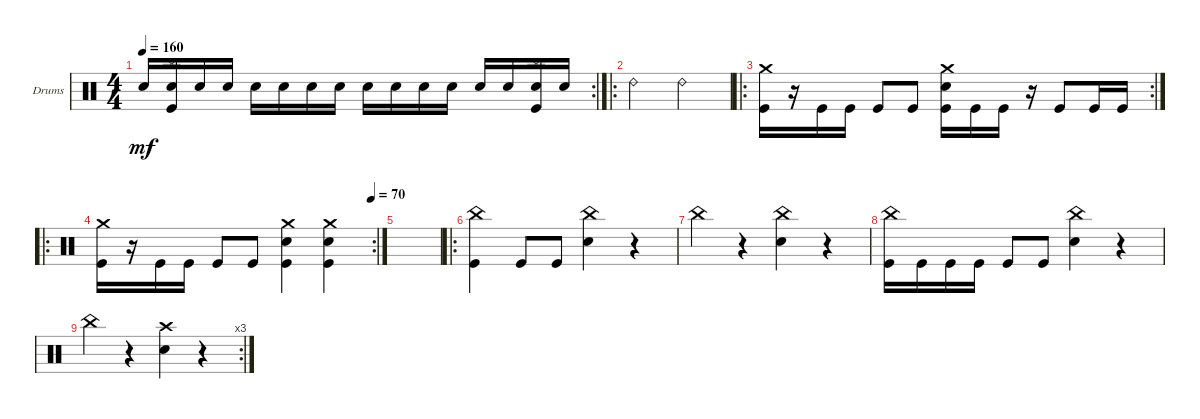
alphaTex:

\defaultSystemsLayout 4
\bracketExtendMode groupsimilarinstruments
\firstSystemTrackNameOrientation horizontal
\otherSystemsTrackNameOrientation horizontal
\track ("Drumkit" "Drums") {instrument percussion}
\staff {score}
\articulation defaults
\rc 2
\ts (4 4)
\tempo 160
\clef neutral
\ks c "Snare (hit) 2".16{dy mf}
("Snare (hit) 2" "Splash (hit)" "Kick (hit)").16 "Snare (hit) 2".16 "Snare (hit) 2".16 "Snare (hit) 2".16 "Snare (hit) 2".16 "Snare (hit) 2".16 "Snare (hit) 2".16 "Snare (hit) 2".16 "Snare (hit) 2".16 "Snare (hit) 2".16 "Snare (hit) 2".16 "Snare (hit) 2".16 "Snare (hit) 2".16 ("Snare (hit) 2" "Splash (hit)" "Kick (hit)").16 "Snare (hit) 2".16 |
\ro "Ride (bell) 2".2 "Ride (bell) 2".2
|
\ro
\rc 2
("Kick (hit)" "Crash medium (hit)").16 r.16 "Kick (hit)".16 "Kick (hit)".16 "Kick (hit)".8 "Kick (hit)".8 ("Kick (hit)" "Crash medium (hit)" "Snare (hit) 2").16 "Kick (hit)".16 "Kick (hit)".16 r.16 "Kick (hit)".8 "Kick (hit)".16 "Kick (hit)".16 |
\ro
\rc 2
\tempo (70 1)
("Kick (hit)" "Crash medium (hit)").16 r.16 "Kick (hit)".16 "Kick (hit)".16 "Kick (hit)".8 "Kick (hit)".8 ("Kick (hit)" "Crash medium (hit)" "Snare (hit) 2").4 ("Crash medium (hit)" "Kick (hit)" "Snare (hit) 2").4 |
|
\ro
("Kick (hit)" "China (hit)").4 "Kick (hit)".8 "Kick (hit)".8 ("Snare (hit) 2" "China (hit)").4 r.4 |
"China (hit)".4 r.4 ("Snare (hit) 2" "China (hit)").4 r.4 |
("Kick (hit)" "China (hit)").16 "Kick (hit)".16 "Kick (hit)".16 "Kick (hit)".16 "Kick (hit)".8 "Kick (hit)".8 ("Snare (hit) 2" "China (hit)").4 r.4 |
\rc 3 "China (hit)".4
r.4 ("Snare (hit) 2" "Crash high (hit)").4 r.4
